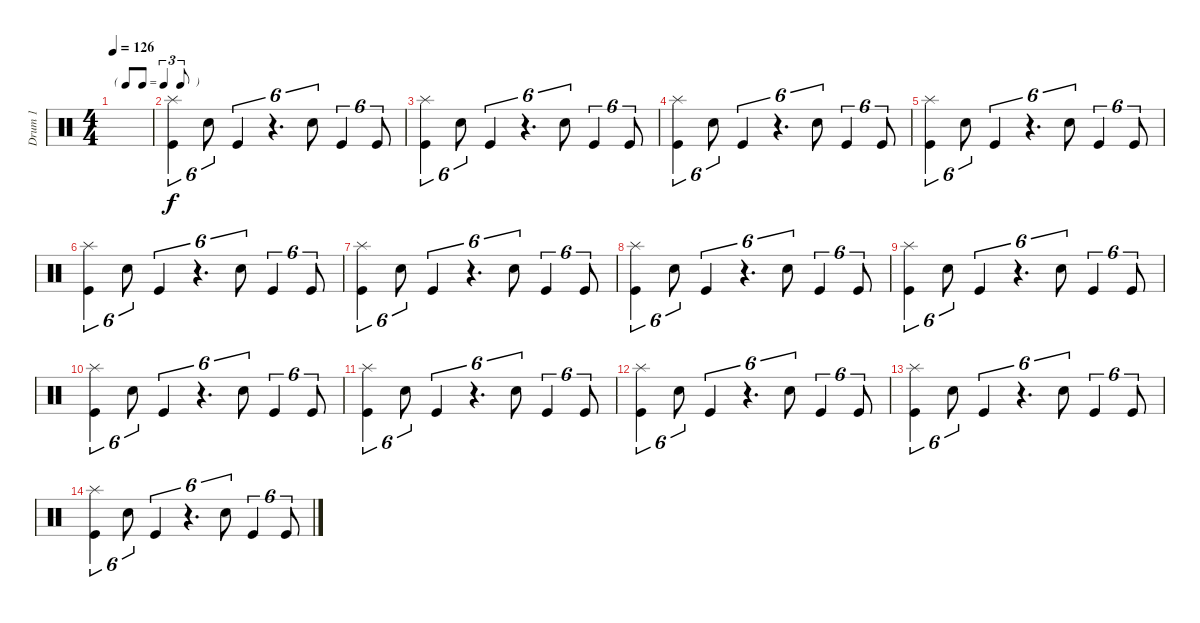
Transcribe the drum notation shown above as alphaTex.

\track ("Drum 1" "Drum 1") {instrument percussion}
\staff {score}
\articulation defaults
\ts (4 4)
\tf triplet8th
\tempo 126
\clef neutral
\ks c
|
("Kick (hit)" "Splash (hit)").4{tu (6 4)} "Snare (hit) 2".8{tu (6 4)} "Kick (hit)".4{tu (6 4)} r.4{d tu (6 4)} "Snare (hit) 2".8{tu (6 4)} "Kick (hit)".4{tu (6 4)} "Kick (hit)".8{tu (6 4)} |
("Kick (hit)" "Splash (hit)").4{tu (6 4)} "Snare (hit) 2".8{tu (6 4)} "Kick (hit)".4{tu (6 4)} r.4{d tu (6 4)} "Snare (hit) 2".8{tu (6 4)} "Kick (hit)".4{tu (6 4)} "Kick (hit)".8{tu (6 4)} |
("Kick (hit)" "Splash (hit)").4{tu (6 4)} "Snare (hit) 2".8{tu (6 4)} "Kick (hit)".4{tu (6 4)} r.4{d tu (6 4)} "Snare (hit) 2".8{tu (6 4)} "Kick (hit)".4{tu (6 4)} "Kick (hit)".8{tu (6 4)} |
("Kick (hit)" "Splash (hit)").4{tu (6 4)} "Snare (hit) 2".8{tu (6 4)} "Kick (hit)".4{tu (6 4)} r.4{d tu (6 4)} "Snare (hit) 2".8{tu (6 4)} "Kick (hit)".4{tu (6 4)} "Kick (hit)".8{tu (6 4)} |
("Kick (hit)" "Splash (hit)").4{tu (6 4)} "Snare (hit) 2".8{tu (6 4)} "Kick (hit)".4{tu (6 4)} r.4{d tu (6 4)} "Snare (hit) 2".8{tu (6 4)} "Kick (hit)".4{tu (6 4)} "Kick (hit)".8{tu (6 4)} |
("Kick (hit)" "Splash (hit)").4{tu (6 4)} "Snare (hit) 2".8{tu (6 4)} "Kick (hit)".4{tu (6 4)} r.4{d tu (6 4)} "Snare (hit) 2".8{tu (6 4)} "Kick (hit)".4{tu (6 4)} "Kick (hit)".8{tu (6 4)} |
("Kick (hit)" "Splash (hit)").4{tu (6 4)} "Snare (hit) 2".8{tu (6 4)} "Kick (hit)".4{tu (6 4)} r.4{d tu (6 4)} "Snare (hit) 2".8{tu (6 4)} "Kick (hit)".4{tu (6 4)} "Kick (hit)".8{tu (6 4)} |
("Kick (hit)" "Splash (hit)").4{tu (6 4)} "Snare (hit) 2".8{tu (6 4)} "Kick (hit)".4{tu (6 4)} r.4{d tu (6 4)} "Snare (hit) 2".8{tu (6 4)} "Kick (hit)".4{tu (6 4)} "Kick (hit)".8{tu (6 4)} |
("Kick (hit)" "Splash (hit)").4{tu (6 4)} "Snare (hit) 2".8{tu (6 4)} "Kick (hit)".4{tu (6 4)} r.4{d tu (6 4)} "Snare (hit) 2".8{tu (6 4)} "Kick (hit)".4{tu (6 4)} "Kick (hit)".8{tu (6 4)} |
("Kick (hit)" "Splash (hit)").4{tu (6 4)} "Snare (hit) 2".8{tu (6 4)} "Kick (hit)".4{tu (6 4)} r.4{d tu (6 4)} "Snare (hit) 2".8{tu (6 4)} "Kick (hit)".4{tu (6 4)} "Kick (hit)".8{tu (6 4)} |
("Kick (hit)" "Splash (hit)").4{tu (6 4)} "Snare (hit) 2".8{tu (6 4)} "Kick (hit)".4{tu (6 4)} r.4{d tu (6 4)} "Snare (hit) 2".8{tu (6 4)} "Kick (hit)".4{tu (6 4)} "Kick (hit)".8{tu (6 4)} |
("Kick (hit)" "Splash (hit)").4{tu (6 4)} "Snare (hit) 2".8{tu (6 4)} "Kick (hit)".4{tu (6 4)} r.4{d tu (6 4)} "Snare (hit) 2".8{tu (6 4)} "Kick (hit)".4{tu (6 4)} "Kick (hit)".8{tu (6 4)} |
("Kick (hit)" "Splash (hit)").4{tu (6 4)} "Snare (hit) 2".8{tu (6 4)} "Kick (hit)".4{tu (6 4)} r.4{d tu (6 4)} "Snare (hit) 2".8{tu (6 4)} "Kick (hit)".4{tu (6 4)} "Kick (hit)".8{tu (6 4)}
